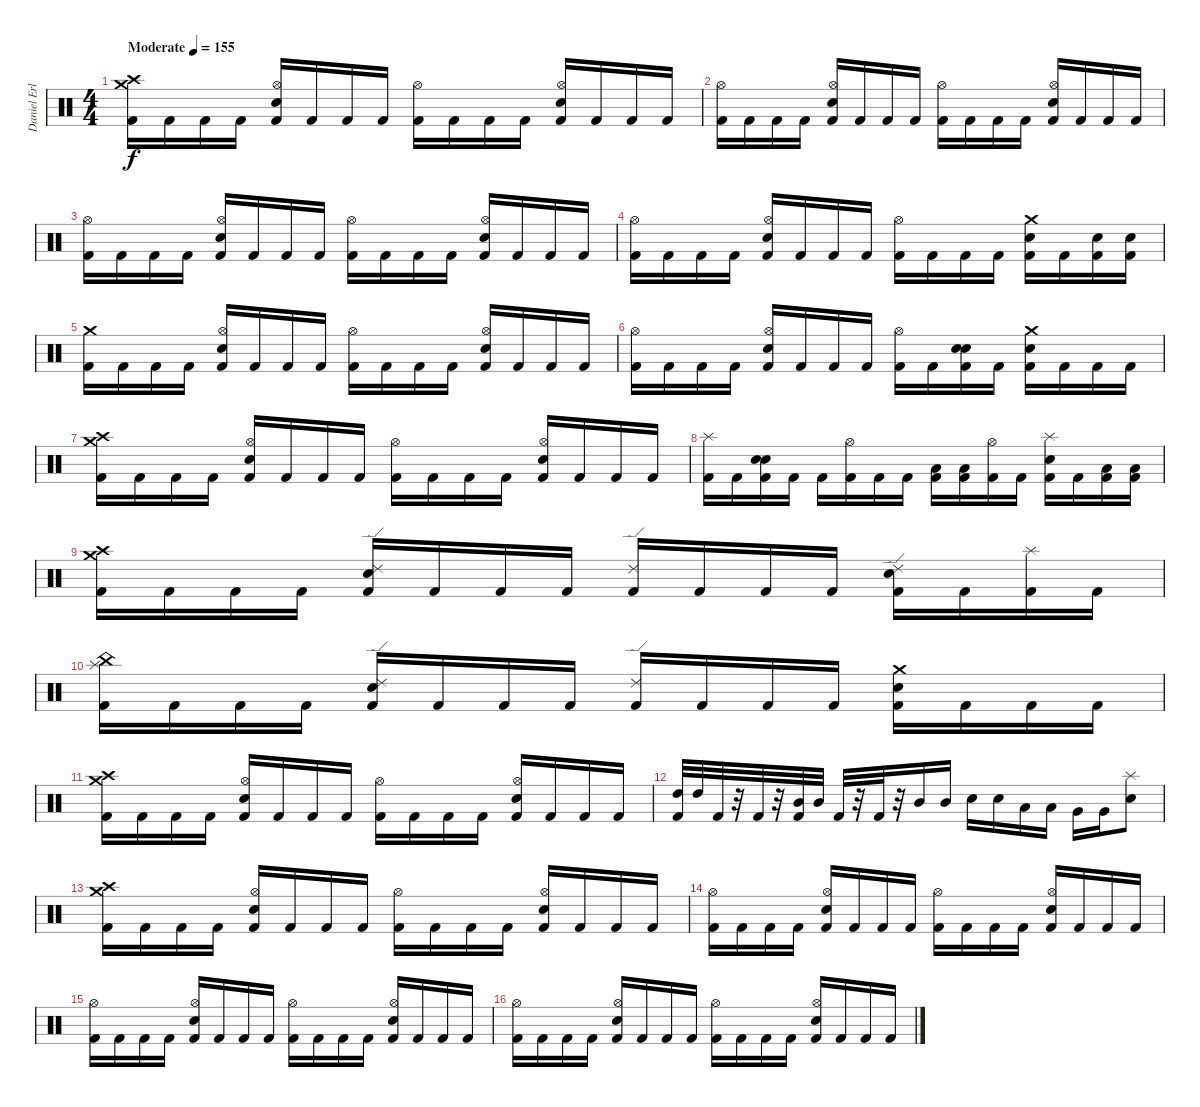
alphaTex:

\track ("Daniel Erlandsson" "Daniel Erl") {instrument percussion}
\staff {score}
\articulation defaults
\ts (4 4)
\tempo (155 "Moderate")
\clef neutral
\ks c
("Crash high (hit)" "Crash medium (hit)" "Kick (hit) 2").16{dy f} "Kick (hit) 2".16 "Kick (hit) 2".16 "Kick (hit) 2".16 ("Hi-Hat (open)" "Snare (hit) 2" "Kick (hit) 2").16 "Kick (hit) 2".16 "Kick (hit) 2".16 "Kick (hit) 2".16 ("Hi-Hat (open)" "Kick (hit) 2").16 "Kick (hit) 2".16 "Kick (hit) 2".16 "Kick (hit) 2".16 ("Hi-Hat (open)" "Snare (hit) 2" "Kick (hit) 2").16 "Kick (hit) 2".16 "Kick (hit) 2".16 "Kick (hit) 2".16 |
("Hi-Hat (open)" "Kick (hit) 2").16 "Kick (hit) 2".16 "Kick (hit) 2".16 "Kick (hit) 2".16 ("Hi-Hat (open)" "Snare (hit) 2" "Kick (hit) 2").16 "Kick (hit) 2".16 "Kick (hit) 2".16 "Kick (hit) 2".16 ("Hi-Hat (open)" "Kick (hit) 2").16 "Kick (hit) 2".16 "Kick (hit) 2".16 "Kick (hit) 2".16 ("Hi-Hat (open)" "Snare (hit) 2" "Kick (hit) 2").16 "Kick (hit) 2".16 "Kick (hit) 2".16 "Kick (hit) 2".16 |
("Hi-Hat (open)" "Kick (hit) 2").16 "Kick (hit) 2".16 "Kick (hit) 2".16 "Kick (hit) 2".16 ("Hi-Hat (open)" "Snare (hit) 2" "Kick (hit) 2").16 "Kick (hit) 2".16 "Kick (hit) 2".16 "Kick (hit) 2".16 ("Hi-Hat (open)" "Kick (hit) 2").16 "Kick (hit) 2".16 "Kick (hit) 2".16 "Kick (hit) 2".16 ("Hi-Hat (open)" "Snare (hit) 2" "Kick (hit) 2").16 "Kick (hit) 2".16 "Kick (hit) 2".16 "Kick (hit) 2".16 |
("Hi-Hat (open)" "Kick (hit) 2").16 "Kick (hit) 2".16 "Kick (hit) 2".16 "Kick (hit) 2".16 ("Hi-Hat (open)" "Snare (hit) 2" "Kick (hit) 2").16 "Kick (hit) 2".16 "Kick (hit) 2".16 "Kick (hit) 2".16 ("Hi-Hat (open)" "Kick (hit) 2").16 "Kick (hit) 2".16 "Kick (hit) 2".16 "Kick (hit) 2".16 ("Crash medium (hit)" "Snare (hit) 2" "Kick (hit) 2").16 "Kick (hit) 2".16 ("Snare (hit) 2" "Kick (hit) 2").16 ("Snare (hit) 2" "Kick (hit) 2").16 |
("Crash medium (hit)" "Kick (hit) 2").16 "Kick (hit) 2".16 "Kick (hit) 2".16 "Kick (hit) 2".16 ("Hi-Hat (open)" "Snare (hit) 2" "Kick (hit) 2").16 "Kick (hit) 2".16 "Kick (hit) 2".16 "Kick (hit) 2".16 ("Hi-Hat (open)" "Kick (hit) 2").16 "Kick (hit) 2".16 "Kick (hit) 2".16 "Kick (hit) 2".16 ("Hi-Hat (open)" "Snare (hit) 2" "Kick (hit) 2").16 "Kick (hit) 2".16 "Kick (hit) 2".16 "Kick (hit) 2".16 |
("Hi-Hat (open)" "Kick (hit) 2").16 "Kick (hit) 2".16 "Kick (hit) 2".16 "Kick (hit) 2".16 ("Hi-Hat (open)" "Snare (hit) 2" "Kick (hit) 2").16 "Kick (hit) 2".16 "Kick (hit) 2".16 "Kick (hit) 2".16 ("Hi-Hat (open)" "Kick (hit) 2").16 "Kick (hit) 2".16 ("Snare (hit) 2" "Snare (hit) 2" "Kick (hit) 2").16{bu 480} "Kick (hit) 2".16 ("Crash medium (hit)" "Snare (hit) 2" "Kick (hit) 2").16 "Kick (hit) 2".16 "Kick (hit) 2".16 "Kick (hit) 2".16 |
("Crash high (hit)" "Crash medium (hit)" "Kick (hit) 2").16 "Kick (hit) 2".16 "Kick (hit) 2".16 "Kick (hit) 2".16 ("Hi-Hat (open)" "Snare (hit) 2" "Kick (hit) 2").16 "Kick (hit) 2".16 "Kick (hit) 2".16 "Kick (hit) 2".16 ("Hi-Hat (open)" "Kick (hit) 2").16 "Kick (hit) 2".16 "Kick (hit) 2".16 "Kick (hit) 2".16 ("Hi-Hat (open)" "Snare (hit) 2" "Kick (hit) 2").16 "Kick (hit) 2".16 "Kick (hit) 2".16 "Kick (hit) 2".16 |
("Splash (hit)" "Kick (hit) 2").16 "Kick (hit) 2".16 ("Snare (hit) 2" "Snare (hit) 2" "Kick (hit) 2").16{bu 480} "Kick (hit) 2".16 "Kick (hit) 2".16 ("Hi-Hat (open)" "Kick (hit) 2").16 "Kick (hit) 2".16 "Kick (hit) 2".16 ("Low Tom (hit)" "Kick (hit) 2").16 ("Low Tom (hit)" "Kick (hit) 2").16 ("Hi-Hat (open)" "Kick (hit) 2").16 "Kick (hit) 2".16 ("Splash (hit)" "Snare (hit) 2" "Kick (hit) 2").16 "Kick (hit) 2".16 ("Low Tom (hit)" "Kick (hit) 2").16 ("Low Tom (hit)" "Kick (hit) 2").16 |
("Crash high (hit)" "Crash medium (hit)" "Kick (hit) 2").16 "Kick (hit) 2".16 "Kick (hit) 2".16 "Kick (hit) 2".16 ("Ride (edge) 2" "Snare (hit) 2" "Kick (hit) 2").16 "Kick (hit) 2".16 "Kick (hit) 2".16 "Kick (hit) 2".16 ("Ride (edge) 2" "Kick (hit) 2").16 "Kick (hit) 2".16 "Kick (hit) 2".16 "Kick (hit) 2".16 ("Ride (edge) 2" "Snare (hit) 2" "Kick (hit) 2").16 "Kick (hit) 2".16 ("Splash (hit)" "Kick (hit) 2").16 "Kick (hit) 2".16 |
("Splash (hit)" "China (hit)" "Kick (hit) 2").16 "Kick (hit) 2".16 "Kick (hit) 2".16 "Kick (hit) 2".16 ("Ride (edge) 2" "Snare (hit) 2" "Kick (hit) 2").16 "Kick (hit) 2".16 "Kick (hit) 2".16 "Kick (hit) 2".16 ("Ride (edge) 2" "Kick (hit) 2").16 "Kick (hit) 2".16 "Kick (hit) 2".16 "Kick (hit) 2".16 ("Crash medium (hit)" "Snare (hit) 2" "Kick (hit) 2").16 "Kick (hit) 2".16 "Kick (hit) 2".16 "Kick (hit) 2".16 |
("Crash high (hit)" "Crash medium (hit)" "Kick (hit) 2").16 "Kick (hit) 2".16 "Kick (hit) 2".16 "Kick (hit) 2".16 ("Hi-Hat (open)" "Snare (hit) 2" "Kick (hit) 2").16 "Kick (hit) 2".16 "Kick (hit) 2".16 "Kick (hit) 2".16 ("Hi-Hat (open)" "Kick (hit) 2").16 "Kick (hit) 2".16 "Kick (hit) 2".16 "Kick (hit) 2".16 ("Hi-Hat (open)" "Snare (hit) 2" "Kick (hit) 2").16 "Kick (hit) 2".16 "Kick (hit) 2".16 "Kick (hit) 2".16 |
("High Tom (hit)" "Kick (hit) 2").32 "High Tom (hit)".32 "Kick (hit) 2".32 r.32 "Kick (hit) 2".32 r.32 ("Mid Tom (hit)" "Kick (hit) 2").32 "Mid Tom (hit)".32 "Kick (hit) 2".32 r.32 "Kick (hit) 2".32 r.32 "Mid Tom (hit)".16 "Mid Tom (hit)".16 "Snare (hit) 2".16 "Snare (hit) 2".16 "Low Tom (hit)".16 "Low Tom (hit)".16 "Very Low Tom (hit)".16 "Very Low Tom (hit)".16 ("Splash (hit)" "Snare (hit) 2").8 |
("Crash high (hit)" "Crash medium (hit)" "Kick (hit) 2").16 "Kick (hit) 2".16 "Kick (hit) 2".16 "Kick (hit) 2".16 ("Hi-Hat (open)" "Snare (hit) 2" "Kick (hit) 2").16 "Kick (hit) 2".16 "Kick (hit) 2".16 "Kick (hit) 2".16 ("Hi-Hat (open)" "Kick (hit) 2").16 "Kick (hit) 2".16 "Kick (hit) 2".16 "Kick (hit) 2".16 ("Hi-Hat (open)" "Snare (hit) 2" "Kick (hit) 2").16 "Kick (hit) 2".16 "Kick (hit) 2".16 "Kick (hit) 2".16 |
("Hi-Hat (open)" "Kick (hit) 2").16 "Kick (hit) 2".16 "Kick (hit) 2".16 "Kick (hit) 2".16 ("Hi-Hat (open)" "Snare (hit) 2" "Kick (hit) 2").16 "Kick (hit) 2".16 "Kick (hit) 2".16 "Kick (hit) 2".16 ("Hi-Hat (open)" "Kick (hit) 2").16 "Kick (hit) 2".16 "Kick (hit) 2".16 "Kick (hit) 2".16 ("Hi-Hat (open)" "Snare (hit) 2" "Kick (hit) 2").16 "Kick (hit) 2".16 "Kick (hit) 2".16 "Kick (hit) 2".16 |
("Hi-Hat (open)" "Kick (hit) 2").16 "Kick (hit) 2".16 "Kick (hit) 2".16 "Kick (hit) 2".16 ("Hi-Hat (open)" "Snare (hit) 2" "Kick (hit) 2").16 "Kick (hit) 2".16 "Kick (hit) 2".16 "Kick (hit) 2".16 ("Hi-Hat (open)" "Kick (hit) 2").16 "Kick (hit) 2".16 "Kick (hit) 2".16 "Kick (hit) 2".16 ("Hi-Hat (open)" "Snare (hit) 2" "Kick (hit) 2").16 "Kick (hit) 2".16 "Kick (hit) 2".16 "Kick (hit) 2".16 |
("Hi-Hat (open)" "Kick (hit) 2").16 "Kick (hit) 2".16 "Kick (hit) 2".16 "Kick (hit) 2".16 ("Hi-Hat (open)" "Snare (hit) 2" "Kick (hit) 2").16 "Kick (hit) 2".16 "Kick (hit) 2".16 "Kick (hit) 2".16 ("Hi-Hat (open)" "Kick (hit) 2").16 "Kick (hit) 2".16 "Kick (hit) 2".16 "Kick (hit) 2".16 ("Hi-Hat (open)" "Snare (hit) 2" "Kick (hit) 2").16 "Kick (hit) 2".16 "Kick (hit) 2".16 "Kick (hit) 2".16
